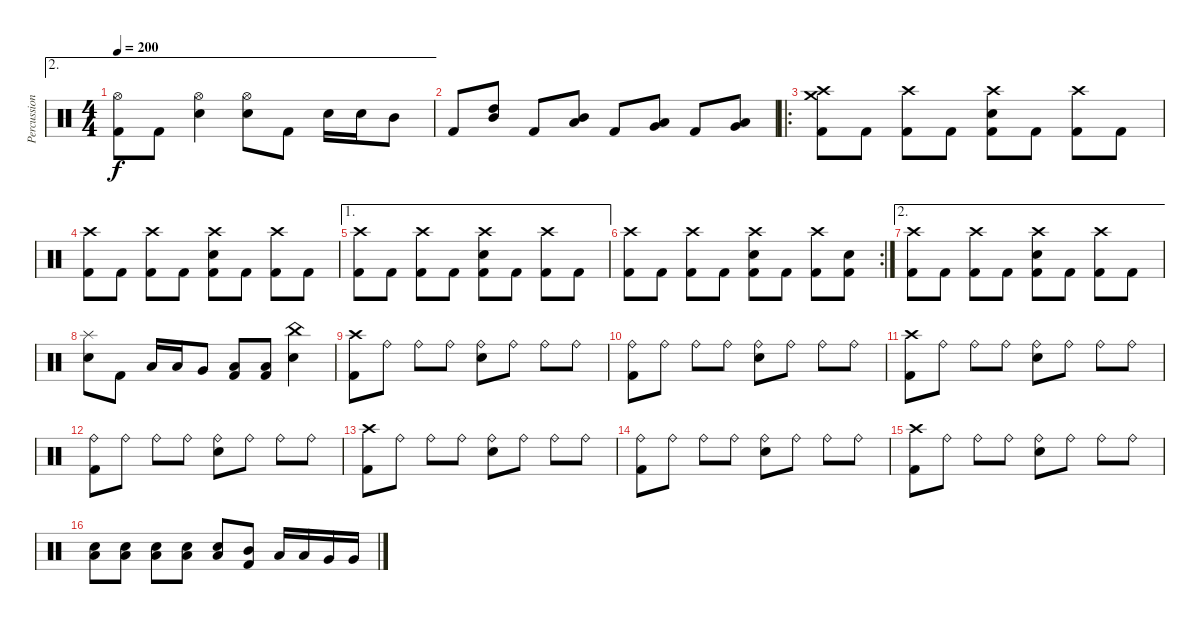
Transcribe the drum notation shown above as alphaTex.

\track ("Percussions" "Percussion") {instrument percussion}
\staff {score}
\articulation defaults
\ae 2
\ts (4 4)
\tempo 200
\clef neutral
\ks c
("Hi-Hat (open)" "Kick (hit) 2").8{dy f} "Kick (hit) 2".8 ("Hi-Hat (open)" "Snare (hit) 2").4 ("Hi-Hat (open)" "Snare (hit) 2").8 "Kick (hit) 2".8 "Snare (hit) 2".16 "Snare (hit) 2".16 "Mid Tom (hit)".8 |
"Kick (hit) 2".8 ("High Tom (hit)" "Mid Tom (hit)").8{bd 240} "Kick (hit) 2".8 ("Mid Tom (hit)" "Low Tom (hit)").8{bd 120} "Kick (hit) 2".8 ("Low Tom (hit)" "Very Low Tom (hit)").8{bd 120} "Kick (hit) 2".8 ("Very Low Tom (hit)" "Low Floor Tom (hit)").8{bd 120} |
\ro
("Crash high (hit)" "Crash medium (hit)" "Kick (hit) 2").8 "Kick (hit) 2".8 ("Crash high (hit)" "Kick (hit) 2").8 "Kick (hit) 2".8 ("Crash high (hit)" "Snare (hit) 2" "Kick (hit) 2").8 "Kick (hit) 2".8 ("Crash high (hit)" "Kick (hit) 2").8 "Kick (hit) 2".8 |
("Crash high (hit)" "Kick (hit) 2").8 "Kick (hit) 2".8 ("Crash high (hit)" "Kick (hit) 2").8 "Kick (hit) 2".8 ("Crash high (hit)" "Snare (hit) 2" "Kick (hit) 2").8 "Kick (hit) 2".8 ("Crash high (hit)" "Kick (hit) 2").8 "Kick (hit) 2".8 |
\ae 1
("Crash high (hit)" "Kick (hit) 2").8 "Kick (hit) 2".8 ("Crash high (hit)" "Kick (hit) 2").8 "Kick (hit) 2".8 ("Crash high (hit)" "Snare (hit) 2" "Kick (hit) 2").8 "Kick (hit) 2".8 ("Crash high (hit)" "Kick (hit) 2").8 "Kick (hit) 2".8 |
\rc 2
("Crash high (hit)" "Kick (hit) 2").8 "Kick (hit) 2".8 ("Crash high (hit)" "Kick (hit) 2").8 "Kick (hit) 2".8 ("Crash high (hit)" "Snare (hit) 2" "Kick (hit) 2").8 "Kick (hit) 2".8 ("Crash high (hit)" "Kick (hit) 2").8 ("Snare (hit) 2" "Kick (hit) 2").8 |
\ae 2
("Crash high (hit)" "Kick (hit) 2").8 "Kick (hit) 2".8 ("Crash high (hit)" "Kick (hit) 2").8 "Kick (hit) 2".8 ("Crash high (hit)" "Snare (hit) 2" "Kick (hit) 2").8 "Kick (hit) 2".8 ("Crash high (hit)" "Kick (hit) 2").8 "Kick (hit) 2".8 |
("Splash (hit)" "Snare (hit) 2").8 "Kick (hit) 2".8 "Low Tom (hit)".16 "Low Tom (hit)".16 "Very Low Tom (hit)".8 ("Low Floor Tom (hit)" "Kick (hit) 2").8 ("Low Floor Tom (hit)" "Kick (hit) 2").8 ("China (hit)" "Snare (hit) 2").4 |
("Crash high (hit)" "Kick (hit) 2").8 "Ride (bell)".8 "Ride (bell)".8 "Ride (bell)".8 ("Ride (bell)" "Snare (hit) 2").8 "Ride (bell)".8 "Ride (bell)".8 "Ride (bell)".8 |
("Ride (bell)" "Kick (hit) 2").8 "Ride (bell)".8 "Ride (bell)".8 "Ride (bell)".8 ("Ride (bell)" "Snare (hit) 2").8 "Ride (bell)".8 "Ride (bell)".8 "Ride (bell)".8 |
("Crash high (hit)" "Kick (hit) 2").8 "Ride (bell)".8 "Ride (bell)".8 "Ride (bell)".8 ("Ride (bell)" "Snare (hit) 2").8 "Ride (bell)".8 "Ride (bell)".8 "Ride (bell)".8 |
("Ride (bell)" "Kick (hit) 2").8 "Ride (bell)".8 "Ride (bell)".8 "Ride (bell)".8 ("Ride (bell)" "Snare (hit) 2").8 "Ride (bell)".8 "Ride (bell)".8 "Ride (bell)".8 |
("Crash high (hit)" "Kick (hit) 2").8 "Ride (bell)".8 "Ride (bell)".8 "Ride (bell)".8 ("Ride (bell)" "Snare (hit) 2").8 "Ride (bell)".8 "Ride (bell)".8 "Ride (bell)".8 |
("Ride (bell)" "Kick (hit) 2").8 "Ride (bell)".8 "Ride (bell)".8 "Ride (bell)".8 ("Ride (bell)" "Snare (hit) 2").8 "Ride (bell)".8 "Ride (bell)".8 "Ride (bell)".8 |
("Crash high (hit)" "Kick (hit) 2").8 "Ride (bell)".8 "Ride (bell)".8 "Ride (bell)".8 ("Ride (bell)" "Snare (hit) 2").8 "Ride (bell)".8 "Ride (bell)".8 "Ride (bell)".8 |
("Low Floor Tom (hit)" "Snare (hit) 2").8 ("Low Floor Tom (hit)" "Snare (hit) 2").8 ("Low Floor Tom (hit)" "Snare (hit) 2").8 ("Low Floor Tom (hit)" "Snare (hit) 2").8 ("Low Floor Tom (hit)" "Snare (hit) 2").8 ("Mid Tom (hit)" "Kick (hit) 2").8 "Low Tom (hit)".16 "Low Tom (hit)".16 "Very Low Tom (hit)".16 "Very Low Tom (hit)".16
